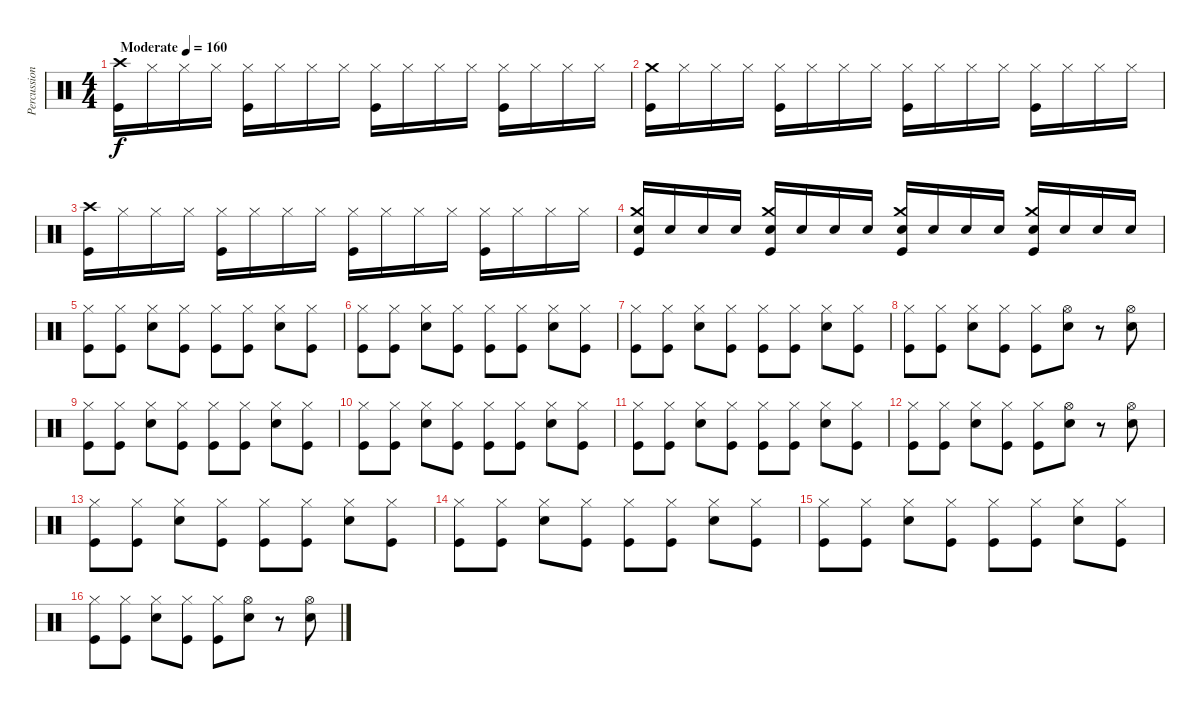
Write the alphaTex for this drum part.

\track ("Percussion" "Percussion") {instrument percussion}
\staff {score}
\articulation defaults
\ts (4 4)
\tempo (160 "Moderate")
\clef neutral
\ks c
("Crash high (hit)" "Kick (hit)").16{dy f} "Hi-Hat (closed)".16 "Hi-Hat (closed)".16 "Hi-Hat (closed)".16 ("Hi-Hat (closed)" "Kick (hit)").16 "Hi-Hat (closed)".16 "Hi-Hat (closed)".16 "Hi-Hat (closed)".16 ("Hi-Hat (closed)" "Kick (hit)").16 "Hi-Hat (closed)".16 "Hi-Hat (closed)".16 "Hi-Hat (closed)".16 ("Hi-Hat (closed)" "Kick (hit)").16 "Hi-Hat (closed)".16 "Hi-Hat (closed)".16 "Hi-Hat (closed)".16 |
("Crash medium (hit)" "Kick (hit)").16 "Hi-Hat (closed)".16 "Hi-Hat (closed)".16 "Hi-Hat (closed)".16 ("Hi-Hat (closed)" "Kick (hit)").16 "Hi-Hat (closed)".16 "Hi-Hat (closed)".16 "Hi-Hat (closed)".16 ("Hi-Hat (closed)" "Kick (hit)").16 "Hi-Hat (closed)".16 "Hi-Hat (closed)".16 "Hi-Hat (closed)".16 ("Hi-Hat (closed)" "Kick (hit)").16 "Hi-Hat (closed)".16 "Hi-Hat (closed)".16 "Hi-Hat (closed)".16 |
("Crash high (hit)" "Kick (hit)").16 "Hi-Hat (closed)".16 "Hi-Hat (closed)".16 "Hi-Hat (closed)".16 ("Hi-Hat (closed)" "Kick (hit)").16 "Hi-Hat (closed)".16 "Hi-Hat (closed)".16 "Hi-Hat (closed)".16 ("Hi-Hat (closed)" "Kick (hit)").16 "Hi-Hat (closed)".16 "Hi-Hat (closed)".16 "Hi-Hat (closed)".16 ("Hi-Hat (closed)" "Kick (hit)").16 "Hi-Hat (closed)".16 "Hi-Hat (closed)".16 "Hi-Hat (closed)".16 |
("Crash medium (hit)" "Electric Snare (hit)" "Kick (hit)").16 "Electric Snare (hit)".16 "Electric Snare (hit)".16 "Electric Snare (hit)".16 ("Crash medium (hit)" "Electric Snare (hit)" "Kick (hit)").16 "Electric Snare (hit)".16 "Electric Snare (hit)".16 "Electric Snare (hit)".16 ("Crash medium (hit)" "Electric Snare (hit)" "Kick (hit)").16 "Electric Snare (hit)".16 "Electric Snare (hit)".16 "Electric Snare (hit)".16 ("Crash medium (hit)" "Electric Snare (hit)" "Kick (hit)").16 "Electric Snare (hit)".16 "Electric Snare (hit)".16 "Electric Snare (hit)".16 |
("Hi-Hat (closed)" "Kick (hit)").8 ("Hi-Hat (closed)" "Kick (hit)").8 ("Hi-Hat (closed)" "Electric Snare (hit)").8 ("Hi-Hat (closed)" "Kick (hit)").8 ("Hi-Hat (closed)" "Kick (hit)").8 ("Hi-Hat (closed)" "Kick (hit)").8 ("Hi-Hat (closed)" "Electric Snare (hit)").8 ("Hi-Hat (closed)" "Kick (hit)").8 |
("Hi-Hat (closed)" "Kick (hit)").8 ("Hi-Hat (closed)" "Kick (hit)").8 ("Hi-Hat (closed)" "Electric Snare (hit)").8 ("Hi-Hat (closed)" "Kick (hit)").8 ("Hi-Hat (closed)" "Kick (hit)").8 ("Hi-Hat (closed)" "Kick (hit)").8 ("Hi-Hat (closed)" "Electric Snare (hit)").8 ("Hi-Hat (closed)" "Kick (hit)").8 |
("Hi-Hat (closed)" "Kick (hit)").8 ("Hi-Hat (closed)" "Kick (hit)").8 ("Hi-Hat (closed)" "Electric Snare (hit)").8 ("Hi-Hat (closed)" "Kick (hit)").8 ("Hi-Hat (closed)" "Kick (hit)").8 ("Hi-Hat (closed)" "Kick (hit)").8 ("Hi-Hat (closed)" "Electric Snare (hit)").8 ("Hi-Hat (closed)" "Kick (hit)").8 |
("Hi-Hat (closed)" "Kick (hit)").8 ("Hi-Hat (closed)" "Kick (hit)").8 ("Hi-Hat (closed)" "Electric Snare (hit)").8 ("Hi-Hat (closed)" "Kick (hit)").8 ("Hi-Hat (closed)" "Kick (hit)").8 ("Hi-Hat (open)" "Electric Snare (hit)").8 r.8 ("Hi-Hat (open)" "Electric Snare (hit)").8 |
("Hi-Hat (closed)" "Kick (hit)").8 ("Hi-Hat (closed)" "Kick (hit)").8 ("Hi-Hat (closed)" "Electric Snare (hit)").8 ("Hi-Hat (closed)" "Kick (hit)").8 ("Hi-Hat (closed)" "Kick (hit)").8 ("Hi-Hat (closed)" "Kick (hit)").8 ("Hi-Hat (closed)" "Electric Snare (hit)").8 ("Hi-Hat (closed)" "Kick (hit)").8 |
("Hi-Hat (closed)" "Kick (hit)").8 ("Hi-Hat (closed)" "Kick (hit)").8 ("Hi-Hat (closed)" "Electric Snare (hit)").8 ("Hi-Hat (closed)" "Kick (hit)").8 ("Hi-Hat (closed)" "Kick (hit)").8 ("Hi-Hat (closed)" "Kick (hit)").8 ("Hi-Hat (closed)" "Electric Snare (hit)").8 ("Hi-Hat (closed)" "Kick (hit)").8 |
("Hi-Hat (closed)" "Kick (hit)").8 ("Hi-Hat (closed)" "Kick (hit)").8 ("Hi-Hat (closed)" "Electric Snare (hit)").8 ("Hi-Hat (closed)" "Kick (hit)").8 ("Hi-Hat (closed)" "Kick (hit)").8 ("Hi-Hat (closed)" "Kick (hit)").8 ("Hi-Hat (closed)" "Electric Snare (hit)").8 ("Hi-Hat (closed)" "Kick (hit)").8 |
("Hi-Hat (closed)" "Kick (hit)").8 ("Hi-Hat (closed)" "Kick (hit)").8 ("Hi-Hat (closed)" "Electric Snare (hit)").8 ("Hi-Hat (closed)" "Kick (hit)").8 ("Hi-Hat (closed)" "Kick (hit)").8 ("Hi-Hat (open)" "Electric Snare (hit)").8 r.8 ("Hi-Hat (open)" "Electric Snare (hit)").8 |
("Hi-Hat (closed)" "Kick (hit)").8 ("Hi-Hat (closed)" "Kick (hit)").8 ("Hi-Hat (closed)" "Electric Snare (hit)").8 ("Hi-Hat (closed)" "Kick (hit)").8 ("Hi-Hat (closed)" "Kick (hit)").8 ("Hi-Hat (closed)" "Kick (hit)").8 ("Hi-Hat (closed)" "Electric Snare (hit)").8 ("Hi-Hat (closed)" "Kick (hit)").8 |
("Hi-Hat (closed)" "Kick (hit)").8 ("Hi-Hat (closed)" "Kick (hit)").8 ("Hi-Hat (closed)" "Electric Snare (hit)").8 ("Hi-Hat (closed)" "Kick (hit)").8 ("Hi-Hat (closed)" "Kick (hit)").8 ("Hi-Hat (closed)" "Kick (hit)").8 ("Hi-Hat (closed)" "Electric Snare (hit)").8 ("Hi-Hat (closed)" "Kick (hit)").8 |
("Hi-Hat (closed)" "Kick (hit)").8 ("Hi-Hat (closed)" "Kick (hit)").8 ("Hi-Hat (closed)" "Electric Snare (hit)").8 ("Hi-Hat (closed)" "Kick (hit)").8 ("Hi-Hat (closed)" "Kick (hit)").8 ("Hi-Hat (closed)" "Kick (hit)").8 ("Hi-Hat (closed)" "Electric Snare (hit)").8 ("Hi-Hat (closed)" "Kick (hit)").8 |
("Hi-Hat (closed)" "Kick (hit)").8 ("Hi-Hat (closed)" "Kick (hit)").8 ("Hi-Hat (closed)" "Electric Snare (hit)").8 ("Hi-Hat (closed)" "Kick (hit)").8 ("Hi-Hat (closed)" "Kick (hit)").8 ("Hi-Hat (open)" "Electric Snare (hit)").8 r.8 ("Hi-Hat (open)" "Electric Snare (hit)").8
